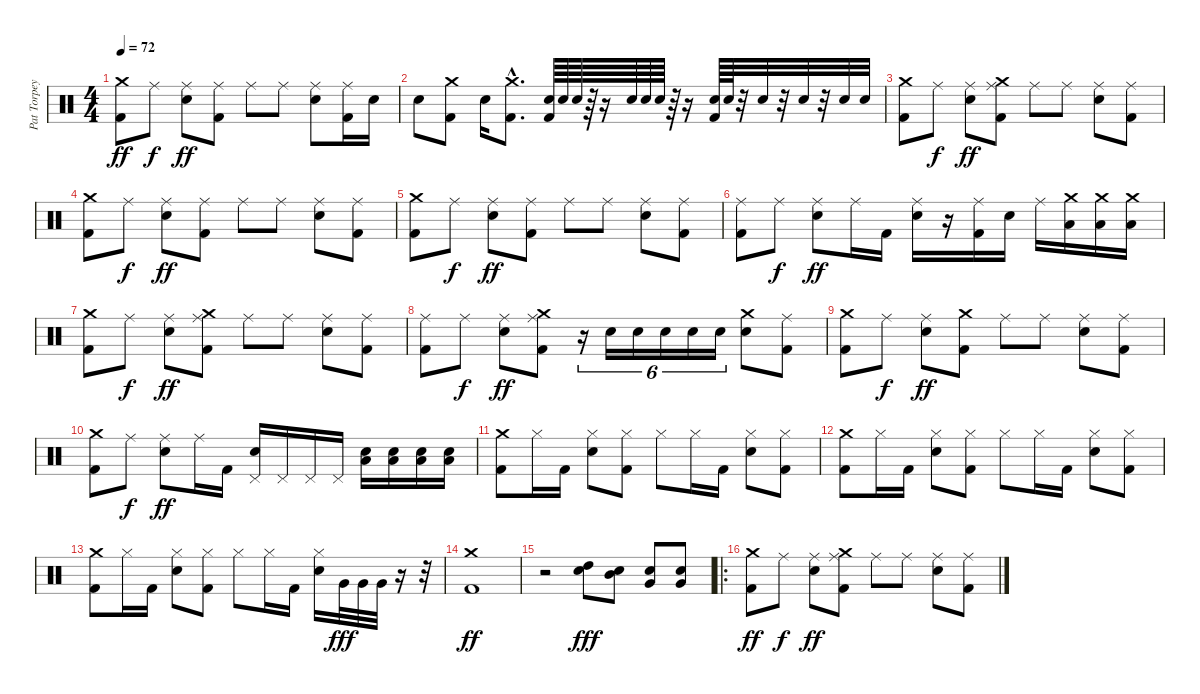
\track ("Pat Torpey" "Pat Torpey") {instrument percussion}
\staff {score}
\articulation defaults
\ts (4 4)
\tempo 72
\clef neutral
\ks c
("Crash medium (hit)" "Kick (hit) 2").8{dy ff} "Ride (middle)".8{dy f} ("Ride (middle)" "Snare (hit) 2").8{dy ff} ("Ride (middle)" "Kick (hit) 2").8 "Ride (middle)".8 "Ride (middle)".8 ("Ride (middle)" "Snare (hit) 2").8 ("Ride (middle)" "Kick (hit) 2").16 "Snare (hit) 2".16 |
"Snare (hit) 2".8 ("Crash medium (hit)" "Kick (hit) 2").8 "Snare (hit) 2".16 ("Crash medium (hit)"{hac} "Kick (hit) 2"{hac}).8{d} ("Snare (hit) 2" "Kick (hit) 2").64 "Snare (hit) 2".64 "Snare (hit) 2".64 r.64 r.16 "Snare (hit) 2".64 "Snare (hit) 2".64 "Snare (hit) 2".64 r.64 r.16 ("Snare (hit) 2" "Kick (hit) 2").64 "Snare (hit) 2".64 r.32 "Snare (hit) 2".32 r.32 "Snare (hit) 2".32 r.32 "Snare (hit) 2".32 "Snare (hit) 2".32 |
("Crash medium (hit)" "Kick (hit) 2").8 "Ride (middle)".8{dy f} ("Ride (middle)" "Snare (hit) 2").8{dy ff} ("Crash medium (hit)" "Ride (middle)" "Kick (hit) 2").8 "Ride (middle)".8 "Ride (middle)".8 ("Ride (middle)" "Snare (hit) 2").8 ("Ride (middle)" "Kick (hit) 2").8 |
("Crash medium (hit)" "Kick (hit) 2").8 "Ride (middle)".8{dy f} ("Ride (middle)" "Snare (hit) 2").8{dy ff} ("Ride (middle)" "Kick (hit) 2").8 "Ride (middle)".8 "Ride (middle)".8 ("Ride (middle)" "Snare (hit) 2").8 ("Ride (middle)" "Kick (hit) 2").8 |
("Crash medium (hit)" "Kick (hit) 2").8 "Ride (middle)".8{dy f} ("Ride (middle)" "Snare (hit) 2").8{dy ff} ("Ride (middle)" "Kick (hit) 2").8 "Ride (middle)".8 "Ride (middle)".8 ("Ride (middle)" "Snare (hit) 2").8 ("Ride (middle)" "Kick (hit) 2").8 |
("Ride (middle)" "Kick (hit) 2").8 "Ride (middle)".8{dy f} ("Ride (middle)" "Snare (hit) 2").8{dy ff} "Ride (middle)".16 "Kick (hit) 2".16 ("Ride (middle)" "Snare (hit) 2").16 r.16 ("Ride (middle)" "Kick (hit) 2").16 "Snare (hit) 2".16 "Ride (middle)".16 ("Crash medium (hit)" "Low Floor Tom (hit)").16 ("Crash medium (hit)" "Low Floor Tom (hit)").16 ("Crash medium (hit)" "Low Floor Tom (hit)").16 |
("Crash medium (hit)" "Kick (hit) 2").8 "Ride (middle)".8{dy f} ("Ride (middle)" "Snare (hit) 2").8{dy ff} ("Crash medium (hit)" "Ride (middle)" "Kick (hit) 2").8 "Ride (middle)".8 "Ride (middle)".8 ("Ride (middle)" "Snare (hit) 2").8 ("Ride (middle)" "Kick (hit) 2").8 |
("Ride (middle)" "Kick (hit) 2").8 "Ride (middle)".8{dy f} ("Ride (middle)" "Snare (hit) 2").8{dy ff} ("Crash medium (hit)" "Ride (middle)" "Kick (hit) 2").8 r.16{tu (6 4)} "Snare (hit) 2".16{tu (6 4)} "Snare (hit) 2".16{tu (6 4)} "Snare (hit) 2".16{tu (6 4)} "Snare (hit) 2".16{tu (6 4)} "Snare (hit) 2".16{tu (6 4)} ("Crash medium (hit)" "Snare (hit) 2").8 ("Ride (middle)" "Kick (hit) 2").8 |
("Crash medium (hit)" "Kick (hit) 2").8 "Ride (middle)".8{dy f} ("Ride (middle)" "Snare (hit) 2").8{dy ff} ("Crash medium (hit)" "Kick (hit) 2").8 "Ride (middle)".8 "Ride (middle)".8 ("Ride (middle)" "Snare (hit) 2").8 ("Ride (middle)" "Kick (hit) 2").8 |
("Crash medium (hit)" "Kick (hit) 2").8 "Ride (middle)".8{dy f} ("Ride (middle)" "Snare (hit) 2").8{dy ff} "Ride (middle)".16 "Kick (hit) 2".16 ("Pedal Hi-Hat (hit)" "Snare (hit) 2").16 "Pedal Hi-Hat (hit)".16 "Pedal Hi-Hat (hit)".16 "Pedal Hi-Hat (hit)".16 ("Low Floor Tom (hit)" "Snare (hit) 2").16 ("Low Floor Tom (hit)" "Snare (hit) 2").16 ("Low Floor Tom (hit)" "Snare (hit) 2").16 ("Low Floor Tom (hit)" "Snare (hit) 2").16 |
("Crash medium (hit)" "Kick (hit) 2").8 "Hi-Hat (closed)".16 "Kick (hit) 2".16 ("Hi-Hat (closed)" "Snare (hit) 2").8 ("Hi-Hat (closed)" "Kick (hit) 2").8 "Hi-Hat (closed)".8 "Hi-Hat (closed)".16 "Kick (hit) 2".16 ("Hi-Hat (closed)" "Snare (hit) 2").8 ("Hi-Hat (closed)" "Kick (hit) 2").8 |
("Crash medium (hit)" "Kick (hit) 2").8 "Hi-Hat (closed)".16 "Kick (hit) 2".16 ("Hi-Hat (closed)" "Snare (hit) 2").8 ("Hi-Hat (closed)" "Kick (hit) 2").8 "Hi-Hat (closed)".8 "Hi-Hat (closed)".16 "Kick (hit) 2".16 ("Hi-Hat (closed)" "Snare (hit) 2").8 ("Hi-Hat (closed)" "Kick (hit) 2").8 |
("Crash medium (hit)" "Kick (hit) 2").8 "Hi-Hat (closed)".16 "Kick (hit) 2".16 ("Hi-Hat (closed)" "Snare (hit) 2").8 ("Hi-Hat (closed)" "Kick (hit) 2").8 "Hi-Hat (closed)".8 "Hi-Hat (closed)".16 "Kick (hit) 2".16 ("Hi-Hat (closed)" "Snare (hit) 2").16 "Very Low Tom (hit)".32{dy fff} "Very Low Tom (hit)".32 "Very Low Tom (hit)".32 r.16 r.32 |
("Crash medium (hit)" "Kick (hit) 2").1{dy ff} |
r.2 ("High Tom (hit)" "Snare (hit) 2").8{dy fff} ("Mid Tom (hit)" "Snare (hit) 2").8 ("Very Low Tom (hit)" "Snare (hit) 2").8 ("Very Low Tom (hit)" "Snare (hit) 2").8 |
\ro
("Crash medium (hit)" "Kick (hit) 2").8{dy ff} "Ride (middle)".8{dy f} ("Ride (middle)" "Snare (hit) 2").8{dy ff} ("Crash medium (hit)" "Ride (middle)" "Kick (hit) 2").8 "Ride (middle)".8 "Ride (middle)".8 ("Ride (middle)" "Snare (hit) 2").8 ("Ride (middle)" "Kick (hit) 2").8
